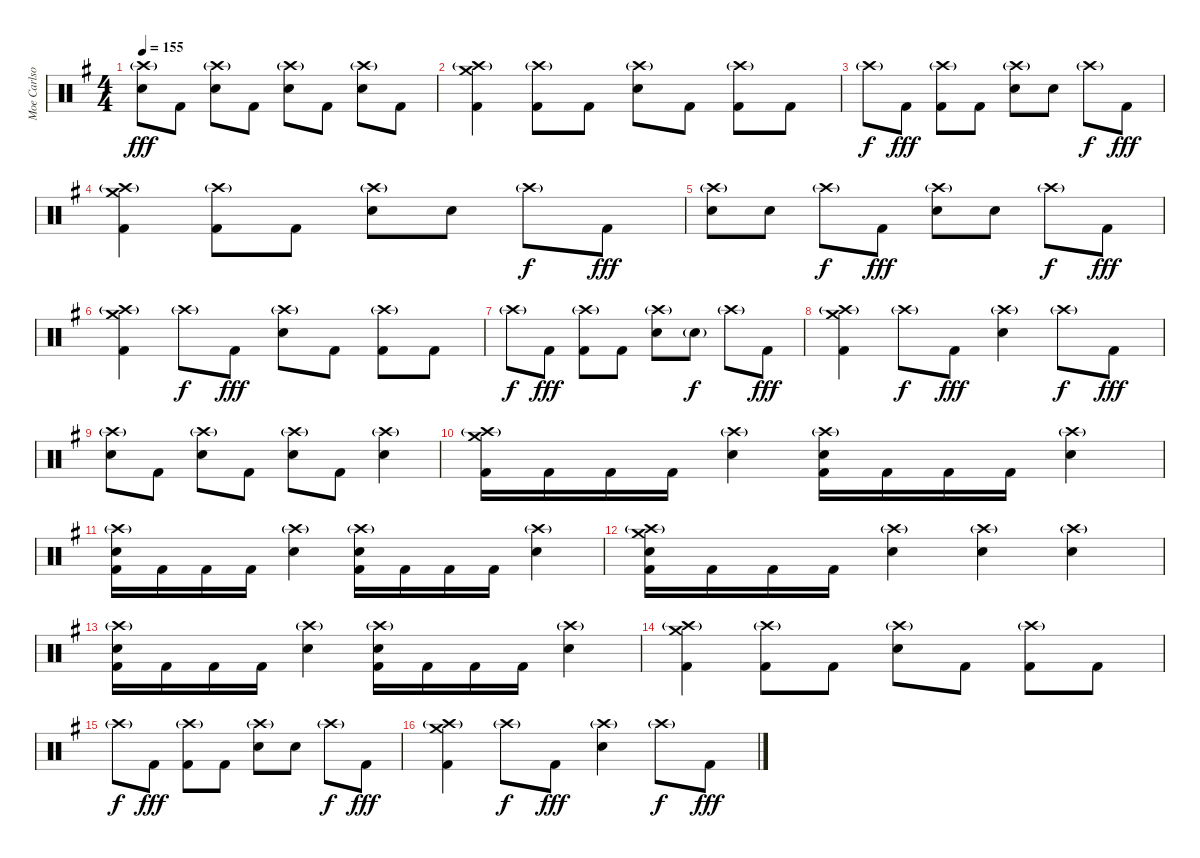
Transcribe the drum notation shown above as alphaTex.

\track ("Moe Carlson" "Moe Carlso") {instrument percussion}
\staff {score}
\articulation defaults
\ts (4 4)
\tempo 155
\clef neutral
\ks g
("Crash high (hit)"{g} "Electric Snare (hit)").8{dy fff} "Kick (hit) 2".8 ("Crash high (hit)"{g} "Electric Snare (hit)").8 "Kick (hit) 2".8 ("Crash high (hit)"{g} "Electric Snare (hit)").8 "Kick (hit) 2".8 ("Crash high (hit)"{g} "Electric Snare (hit)").8 "Kick (hit) 2".8 |
("Crash high (hit)"{g} "Crash medium (hit)" "Kick (hit) 2").4 ("Crash high (hit)"{g} "Kick (hit) 2").8 "Kick (hit) 2".8 ("Crash high (hit)"{g} "Electric Snare (hit)").8 "Kick (hit) 2".8 ("Crash high (hit)"{g} "Kick (hit) 2").8 "Kick (hit) 2".8 |
"Crash high (hit)"{g}.8{dy f} "Kick (hit) 2".8{dy fff} ("Crash high (hit)"{g} "Kick (hit) 2").8 "Kick (hit) 2".8 ("Crash high (hit)"{g} "Electric Snare (hit)").8 "Electric Snare (hit)".8 "Crash high (hit)"{g}.8{dy f} "Kick (hit) 2".8{dy fff} |
("Crash high (hit)"{g} "Crash medium (hit)" "Kick (hit) 2").4 ("Crash high (hit)"{g} "Kick (hit) 2").8 "Kick (hit) 2".8 ("Crash high (hit)"{g} "Electric Snare (hit)").8 "Electric Snare (hit)".8 "Crash high (hit)"{g}.8{dy f} "Kick (hit) 2".8{dy fff} |
("Crash high (hit)"{g} "Electric Snare (hit)").8 "Electric Snare (hit)".8 "Crash high (hit)"{g}.8{dy f} "Kick (hit) 2".8{dy fff} ("Crash high (hit)"{g} "Electric Snare (hit)").8 "Electric Snare (hit)".8 "Crash high (hit)"{g}.8{dy f} "Kick (hit) 2".8{dy fff} |
("Crash high (hit)"{g} "Crash medium (hit)" "Kick (hit) 2").4 "Crash high (hit)"{g}.8{dy f} "Kick (hit) 2".8{dy fff} ("Crash high (hit)"{g} "Electric Snare (hit)").8 "Kick (hit) 2".8 ("Crash high (hit)"{g} "Kick (hit) 2").8 "Kick (hit) 2".8 |
"Crash high (hit)"{g}.8{dy f} "Kick (hit) 2".8{dy fff} ("Crash high (hit)"{g} "Kick (hit) 2").8 "Kick (hit) 2".8 ("Crash high (hit)"{g} "Electric Snare (hit)").8 "Electric Snare (hit)"{g}.8{dy f} "Crash high (hit)"{g}.8 "Kick (hit) 2".8{dy fff} |
("Crash high (hit)"{g} "Crash medium (hit)" "Kick (hit) 2").4 "Crash high (hit)"{g}.8{dy f} "Kick (hit) 2".8{dy fff} ("Crash high (hit)"{g} "Electric Snare (hit)").4 "Crash high (hit)"{g}.8{dy f} "Kick (hit) 2".8{dy fff} |
("Crash high (hit)"{g} "Electric Snare (hit)").8 "Kick (hit) 2".8 ("Crash high (hit)"{g} "Electric Snare (hit)").8 "Kick (hit) 2".8 ("Crash high (hit)"{g} "Electric Snare (hit)").8 "Kick (hit) 2".8 ("Crash high (hit)"{g} "Electric Snare (hit)").4 |
("Crash high (hit)"{g} "Crash medium (hit)" "Kick (hit) 2").16 "Kick (hit) 2".16 "Kick (hit) 2".16 "Kick (hit) 2".16 ("Crash high (hit)"{g} "Electric Snare (hit)").4 ("Crash high (hit)"{g} "Electric Snare (hit)" "Kick (hit) 2").16 "Kick (hit) 2".16 "Kick (hit) 2".16 "Kick (hit) 2".16 ("Crash high (hit)"{g} "Electric Snare (hit)").4 |
("Crash high (hit)"{g} "Electric Snare (hit)" "Kick (hit) 2").16 "Kick (hit) 2".16 "Kick (hit) 2".16 "Kick (hit) 2".16 ("Crash high (hit)"{g} "Electric Snare (hit)").4 ("Crash high (hit)"{g} "Electric Snare (hit)" "Kick (hit) 2").16 "Kick (hit) 2".16 "Kick (hit) 2".16 "Kick (hit) 2".16 ("Crash high (hit)"{g} "Electric Snare (hit)").4 |
("Crash high (hit)"{g} "Crash medium (hit)" "Electric Snare (hit)" "Kick (hit) 2").16 "Kick (hit) 2".16 "Kick (hit) 2".16 "Kick (hit) 2".16 ("Crash high (hit)"{g} "Electric Snare (hit)").4 ("Crash high (hit)"{g} "Electric Snare (hit)").4 ("Crash high (hit)"{g} "Electric Snare (hit)").4 |
("Crash high (hit)"{g} "Electric Snare (hit)" "Kick (hit) 2").16 "Kick (hit) 2".16 "Kick (hit) 2".16 "Kick (hit) 2".16 ("Crash high (hit)"{g} "Electric Snare (hit)").4 ("Crash high (hit)"{g} "Electric Snare (hit)" "Kick (hit) 2").16 "Kick (hit) 2".16 "Kick (hit) 2".16 "Kick (hit) 2".16 ("Crash high (hit)"{g} "Electric Snare (hit)").4 |
("Crash high (hit)"{g} "Crash medium (hit)" "Kick (hit) 2").4 ("Crash high (hit)"{g} "Kick (hit) 2").8 "Kick (hit) 2".8 ("Crash high (hit)"{g} "Electric Snare (hit)").8 "Kick (hit) 2".8 ("Crash high (hit)"{g} "Kick (hit) 2").8 "Kick (hit) 2".8 |
"Crash high (hit)"{g}.8{dy f} "Kick (hit) 2".8{dy fff} ("Crash high (hit)"{g} "Kick (hit) 2").8 "Kick (hit) 2".8 ("Crash high (hit)"{g} "Electric Snare (hit)").8 "Electric Snare (hit)".8 "Crash high (hit)"{g}.8{dy f} "Kick (hit) 2".8{dy fff} |
("Crash high (hit)"{g} "Crash medium (hit)" "Kick (hit) 2").4 "Crash high (hit)"{g}.8{dy f} "Kick (hit) 2".8{dy fff} ("Crash high (hit)"{g} "Electric Snare (hit)").4 "Crash high (hit)"{g}.8{dy f} "Kick (hit) 2".8{dy fff}
